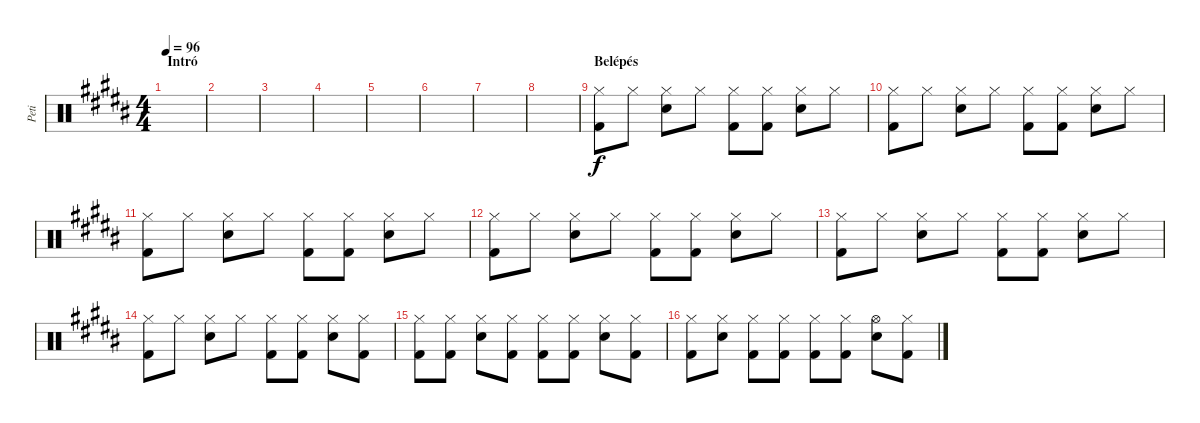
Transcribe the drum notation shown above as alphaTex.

\track ("Peti" "Peti") {instrument percussion}
\staff {score}
\articulation defaults
\ts (4 4)
\section ("" "Intró")
\tempo 96
\clef neutral
\ks g#minor
|
|
|
|
|
|
|
|
\section ("" "Belépés")
("Hi-Hat (closed)" "Kick (hit) 2").8 "Hi-Hat (closed)".8 ("Hi-Hat (closed)" "Snare (hit) 2").8 "Hi-Hat (closed)".8 ("Hi-Hat (closed)" "Kick (hit) 2").8 ("Hi-Hat (closed)" "Kick (hit) 2").8 ("Hi-Hat (closed)" "Snare (hit) 2").8 "Hi-Hat (closed)".8 |
("Hi-Hat (closed)" "Kick (hit) 2").8 "Hi-Hat (closed)".8 ("Hi-Hat (closed)" "Snare (hit) 2").8 "Hi-Hat (closed)".8 ("Hi-Hat (closed)" "Kick (hit) 2").8 ("Hi-Hat (closed)" "Kick (hit) 2").8 ("Hi-Hat (closed)" "Snare (hit) 2").8 "Hi-Hat (closed)".8 |
("Hi-Hat (closed)" "Kick (hit) 2").8 "Hi-Hat (closed)".8 ("Hi-Hat (closed)" "Snare (hit) 2").8 "Hi-Hat (closed)".8 ("Hi-Hat (closed)" "Kick (hit) 2").8 ("Hi-Hat (closed)" "Kick (hit) 2").8 ("Hi-Hat (closed)" "Snare (hit) 2").8 "Hi-Hat (closed)".8 |
("Hi-Hat (closed)" "Kick (hit) 2").8 "Hi-Hat (closed)".8 ("Hi-Hat (closed)" "Snare (hit) 2").8 "Hi-Hat (closed)".8 ("Hi-Hat (closed)" "Kick (hit) 2").8 ("Hi-Hat (closed)" "Kick (hit) 2").8 ("Hi-Hat (closed)" "Snare (hit) 2").8 "Hi-Hat (closed)".8 |
("Hi-Hat (closed)" "Kick (hit) 2").8 "Hi-Hat (closed)".8 ("Hi-Hat (closed)" "Snare (hit) 2").8 "Hi-Hat (closed)".8 ("Hi-Hat (closed)" "Kick (hit) 2").8 ("Hi-Hat (closed)" "Kick (hit) 2").8 ("Hi-Hat (closed)" "Snare (hit) 2").8 "Hi-Hat (closed)".8 |
("Hi-Hat (closed)" "Kick (hit) 2").8 "Hi-Hat (closed)".8 ("Hi-Hat (closed)" "Snare (hit) 2").8 "Hi-Hat (closed)".8 ("Hi-Hat (closed)" "Kick (hit) 2").8 ("Hi-Hat (closed)" "Kick (hit) 2").8 ("Hi-Hat (closed)" "Snare (hit) 2").8 ("Hi-Hat (closed)" "Kick (hit) 2").8 |
("Hi-Hat (closed)" "Kick (hit) 2").8 ("Hi-Hat (closed)" "Kick (hit) 2").8 ("Hi-Hat (closed)" "Snare (hit) 2").8 ("Hi-Hat (closed)" "Kick (hit) 2").8 ("Hi-Hat (closed)" "Kick (hit) 2").8 ("Hi-Hat (closed)" "Kick (hit) 2").8 ("Hi-Hat (closed)" "Snare (hit) 2").8 ("Hi-Hat (closed)" "Kick (hit) 2").8 |
("Hi-Hat (closed)" "Kick (hit) 2").8 ("Hi-Hat (closed)" "Snare (hit) 2").8 ("Hi-Hat (closed)" "Kick (hit) 2").8 ("Hi-Hat (closed)" "Kick (hit) 2").8 ("Hi-Hat (closed)" "Kick (hit) 2").8 ("Hi-Hat (closed)" "Kick (hit) 2").8 ("Hi-Hat (open)" "Snare (hit) 2").8 ("Hi-Hat (closed)" "Kick (hit) 2").8
